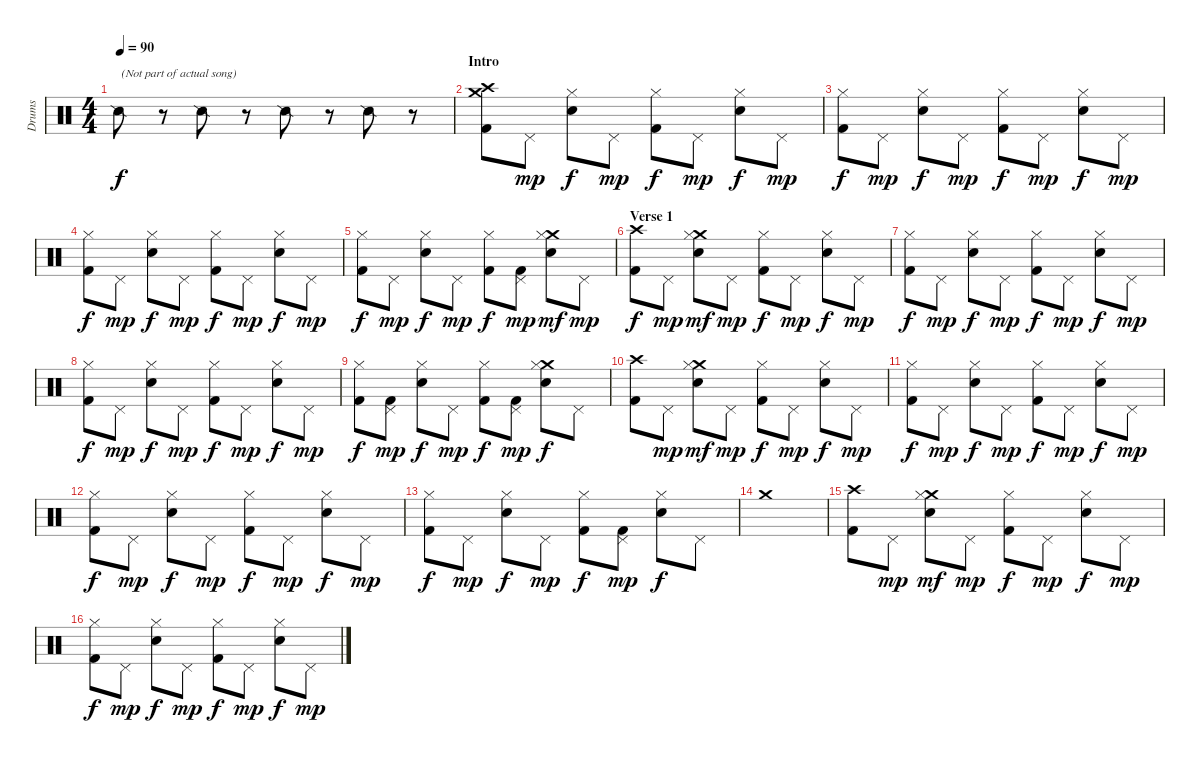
\track ("Drums" "Drums") {instrument percussion}
\staff {score}
\articulation defaults
\ts (4 4)
\tempo 90
\clef neutral
\ks c "Snare (side stick) 2".8{txt "(Not part of actual song)" dy f}
r.8 "Snare (side stick) 2".8 r.8 "Snare (side stick) 2".8 r.8 "Snare (side stick) 2".8 r.8 |
\section ("" "Intro")
("Crash medium (hit)" "Crash high (hit)" "Kick (hit) 2").8 "Pedal Hi-Hat (hit)".8{dy mp} ("Hi-Hat (closed)" "Snare (hit) 2").8{dy f} "Pedal Hi-Hat (hit)".8{dy mp} ("Hi-Hat (closed)" "Kick (hit) 2").8{dy f} "Pedal Hi-Hat (hit)".8{dy mp} ("Hi-Hat (closed)" "Snare (hit) 2").8{dy f} "Pedal Hi-Hat (hit)".8{dy mp} |
("Hi-Hat (closed)" "Kick (hit) 2").8{dy f} "Pedal Hi-Hat (hit)".8{dy mp} ("Hi-Hat (closed)" "Snare (hit) 2").8{dy f} "Pedal Hi-Hat (hit)".8{dy mp} ("Hi-Hat (closed)" "Kick (hit) 2").8{dy f} "Pedal Hi-Hat (hit)".8{dy mp} ("Hi-Hat (closed)" "Snare (hit) 2").8{dy f} "Pedal Hi-Hat (hit)".8{dy mp} |
("Hi-Hat (closed)" "Kick (hit) 2").8{dy f} "Pedal Hi-Hat (hit)".8{dy mp} ("Hi-Hat (closed)" "Snare (hit) 2").8{dy f} "Pedal Hi-Hat (hit)".8{dy mp} ("Hi-Hat (closed)" "Kick (hit) 2").8{dy f} "Pedal Hi-Hat (hit)".8{dy mp} ("Hi-Hat (closed)" "Snare (hit) 2").8{dy f} "Pedal Hi-Hat (hit)".8{dy mp} |
("Hi-Hat (closed)" "Kick (hit) 2").8{dy f} "Pedal Hi-Hat (hit)".8{dy mp} ("Hi-Hat (closed)" "Snare (hit) 2").8{dy f} "Pedal Hi-Hat (hit)".8{dy mp} ("Hi-Hat (closed)" "Kick (hit) 2").8{dy f} ("Pedal Hi-Hat (hit)" "Kick (hit) 2").8{dy mp} ("Crash medium (hit)" "Hi-Hat (closed)" "Snare (hit) 2").8{dy mf} "Pedal Hi-Hat (hit)".8{dy mp} |
\section ("" "Verse 1")
("Crash high (hit)" "Kick (hit) 2").8{dy f} "Pedal Hi-Hat (hit)".8{dy mp} ("Crash medium (hit)" "Hi-Hat (closed)" "Snare (hit) 2").8{dy mf} "Pedal Hi-Hat (hit)".8{dy mp} ("Hi-Hat (closed)" "Kick (hit) 2").8{dy f} "Pedal Hi-Hat (hit)".8{dy mp} ("Hi-Hat (closed)" "Snare (hit) 2").8{dy f} "Pedal Hi-Hat (hit)".8{dy mp} |
("Hi-Hat (closed)" "Kick (hit) 2").8{dy f} "Pedal Hi-Hat (hit)".8{dy mp} ("Hi-Hat (closed)" "Snare (hit) 2").8{dy f} "Pedal Hi-Hat (hit)".8{dy mp} ("Hi-Hat (closed)" "Kick (hit) 2").8{dy f} "Pedal Hi-Hat (hit)".8{dy mp} ("Hi-Hat (closed)" "Snare (hit) 2").8{dy f} "Pedal Hi-Hat (hit)".8{dy mp} |
("Hi-Hat (closed)" "Kick (hit) 2").8{dy f} "Pedal Hi-Hat (hit)".8{dy mp} ("Hi-Hat (closed)" "Snare (hit) 2").8{dy f} "Pedal Hi-Hat (hit)".8{dy mp} ("Hi-Hat (closed)" "Kick (hit) 2").8{dy f} "Pedal Hi-Hat (hit)".8{dy mp} ("Hi-Hat (closed)" "Snare (hit) 2").8{dy f} "Pedal Hi-Hat (hit)".8{dy mp} |
("Hi-Hat (closed)" "Kick (hit) 2").8{dy f} ("Pedal Hi-Hat (hit)" "Kick (hit) 2").8{dy mp} ("Hi-Hat (closed)" "Snare (hit) 2").8{dy f} "Pedal Hi-Hat (hit)".8{dy mp} ("Hi-Hat (closed)" "Kick (hit) 2").8{dy f} ("Pedal Hi-Hat (hit)" "Kick (hit) 2").8{dy mp} ("Crash medium (hit)" "Hi-Hat (closed)" "Snare (hit) 2").8{dy f} "Pedal Hi-Hat (hit)".8 |
("Crash high (hit)" "Kick (hit) 2").8 "Pedal Hi-Hat (hit)".8{dy mp} ("Crash medium (hit)" "Hi-Hat (closed)" "Snare (hit) 2").8{dy mf} "Pedal Hi-Hat (hit)".8{dy mp} ("Hi-Hat (closed)" "Kick (hit) 2").8{dy f} "Pedal Hi-Hat (hit)".8{dy mp} ("Hi-Hat (closed)" "Snare (hit) 2").8{dy f} "Pedal Hi-Hat (hit)".8{dy mp} |
("Hi-Hat (closed)" "Kick (hit) 2").8{dy f} "Pedal Hi-Hat (hit)".8{dy mp} ("Hi-Hat (closed)" "Snare (hit) 2").8{dy f} "Pedal Hi-Hat (hit)".8{dy mp} ("Hi-Hat (closed)" "Kick (hit) 2").8{dy f} "Pedal Hi-Hat (hit)".8{dy mp} ("Hi-Hat (closed)" "Snare (hit) 2").8{dy f} "Pedal Hi-Hat (hit)".8{dy mp} |
("Hi-Hat (closed)" "Kick (hit) 2").8{dy f} "Pedal Hi-Hat (hit)".8{dy mp} ("Hi-Hat (closed)" "Snare (hit) 2").8{dy f} "Pedal Hi-Hat (hit)".8{dy mp} ("Hi-Hat (closed)" "Kick (hit) 2").8{dy f} "Pedal Hi-Hat (hit)".8{dy mp} ("Hi-Hat (closed)" "Snare (hit) 2").8{dy f} "Pedal Hi-Hat (hit)".8{dy mp} |
("Hi-Hat (closed)" "Kick (hit) 2").8{dy f} "Pedal Hi-Hat (hit)".8{dy mp} ("Hi-Hat (closed)" "Snare (hit) 2").8{dy f} "Pedal Hi-Hat (hit)".8{dy mp} ("Hi-Hat (closed)" "Kick (hit) 2").8{dy f} ("Pedal Hi-Hat (hit)" "Kick (hit) 2").8{dy mp} ("Hi-Hat (closed)" "Snare (hit) 2").8{dy f} "Pedal Hi-Hat (hit)".8 |
"Crash medium (hit)".1 |
("Crash high (hit)" "Kick (hit) 2").8 "Pedal Hi-Hat (hit)".8{dy mp} ("Crash medium (hit)" "Hi-Hat (closed)" "Snare (hit) 2").8{dy mf} "Pedal Hi-Hat (hit)".8{dy mp} ("Hi-Hat (closed)" "Kick (hit) 2").8{dy f} "Pedal Hi-Hat (hit)".8{dy mp} ("Hi-Hat (closed)" "Snare (hit) 2").8{dy f} "Pedal Hi-Hat (hit)".8{dy mp} |
("Hi-Hat (closed)" "Kick (hit) 2").8{dy f} "Pedal Hi-Hat (hit)".8{dy mp} ("Hi-Hat (closed)" "Snare (hit) 2").8{dy f} "Pedal Hi-Hat (hit)".8{dy mp} ("Hi-Hat (closed)" "Kick (hit) 2").8{dy f} "Pedal Hi-Hat (hit)".8{dy mp} ("Hi-Hat (closed)" "Snare (hit) 2").8{dy f} "Pedal Hi-Hat (hit)".8{dy mp}
